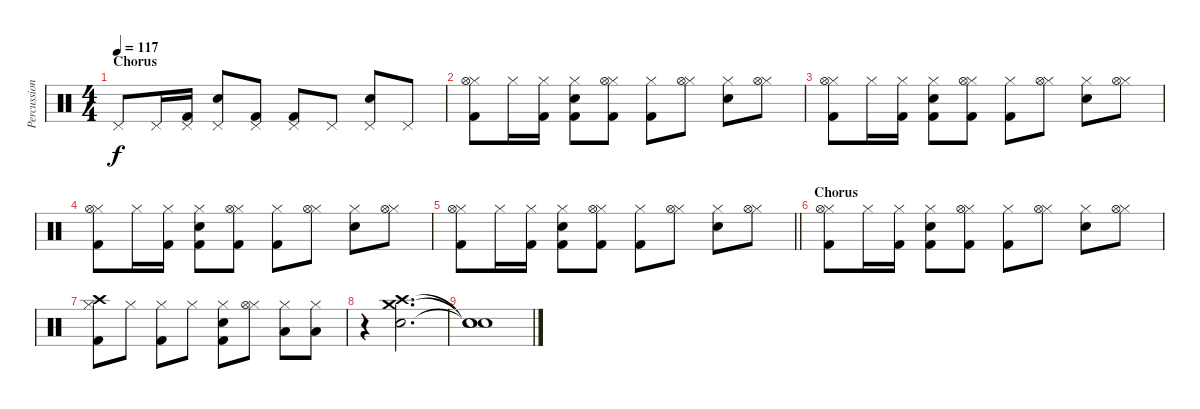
\track ("Percussion" "Percussion") {instrument percussion}
\staff {score}
\articulation defaults
\ts (4 4)
\section ("" "Chorus")
\tempo 117
\clef neutral
\ks c "Pedal Hi-Hat (hit)".8{dy f} "Pedal Hi-Hat (hit)".16
("Pedal Hi-Hat (hit)" "Kick (hit) 2").16 ("Pedal Hi-Hat (hit)" "Electric Snare (hit)").8 ("Pedal Hi-Hat (hit)" "Kick (hit) 2").8 ("Pedal Hi-Hat (hit)" "Kick (hit) 2").8 "Pedal Hi-Hat (hit)".8 ("Pedal Hi-Hat (hit)" "Electric Snare (hit)").8 "Pedal Hi-Hat (hit)".8 |
("Hi-Hat (closed)" "Kick (hit) 2" "Hi-Hat (open)").8 "Hi-Hat (closed)".16 ("Hi-Hat (closed)" "Kick (hit) 2").16 ("Hi-Hat (closed)" "Kick (hit) 2" "Electric Snare (hit)").8 ("Hi-Hat (closed)" "Hi-Hat (open)" "Kick (hit) 2").8 ("Hi-Hat (closed)" "Kick (hit) 2").8 ("Hi-Hat (closed)" "Hi-Hat (open)").8 ("Hi-Hat (closed)" "Electric Snare (hit)").8 ("Hi-Hat (closed)" "Hi-Hat (open)").8 |
("Hi-Hat (closed)" "Kick (hit) 2" "Hi-Hat (open)").8 "Hi-Hat (closed)".16 ("Hi-Hat (closed)" "Kick (hit) 2").16 ("Hi-Hat (closed)" "Kick (hit) 2" "Electric Snare (hit)").8 ("Hi-Hat (closed)" "Hi-Hat (open)" "Kick (hit) 2").8 ("Hi-Hat (closed)" "Kick (hit) 2").8 ("Hi-Hat (closed)" "Hi-Hat (open)").8 ("Hi-Hat (closed)" "Electric Snare (hit)").8 ("Hi-Hat (closed)" "Hi-Hat (open)").8 |
("Hi-Hat (closed)" "Kick (hit) 2" "Hi-Hat (open)").8 "Hi-Hat (closed)".16 ("Hi-Hat (closed)" "Kick (hit) 2").16 ("Hi-Hat (closed)" "Kick (hit) 2" "Electric Snare (hit)").8 ("Hi-Hat (closed)" "Hi-Hat (open)" "Kick (hit) 2").8 ("Hi-Hat (closed)" "Kick (hit) 2").8 ("Hi-Hat (closed)" "Hi-Hat (open)").8 ("Hi-Hat (closed)" "Electric Snare (hit)").8 ("Hi-Hat (closed)" "Hi-Hat (open)").8 |
\barLineRight lightlight
("Hi-Hat (closed)" "Kick (hit) 2" "Hi-Hat (open)").8 "Hi-Hat (closed)".16 ("Hi-Hat (closed)" "Kick (hit) 2").16 ("Hi-Hat (closed)" "Kick (hit) 2" "Electric Snare (hit)").8 ("Hi-Hat (closed)" "Hi-Hat (open)" "Kick (hit) 2").8 ("Hi-Hat (closed)" "Kick (hit) 2").8 ("Hi-Hat (closed)" "Hi-Hat (open)").8 ("Hi-Hat (closed)" "Electric Snare (hit)").8 ("Hi-Hat (closed)" "Hi-Hat (open)").8 |
\section ("" "Chorus")
("Hi-Hat (closed)" "Kick (hit) 2" "Hi-Hat (open)").8 "Hi-Hat (closed)".16 ("Hi-Hat (closed)" "Kick (hit) 2").16 ("Hi-Hat (closed)" "Kick (hit) 2" "Electric Snare (hit)").8 ("Hi-Hat (closed)" "Hi-Hat (open)" "Kick (hit) 2").8 ("Hi-Hat (closed)" "Kick (hit) 2").8 ("Hi-Hat (closed)" "Hi-Hat (open)").8 ("Hi-Hat (closed)" "Electric Snare (hit)").8 ("Hi-Hat (closed)" "Hi-Hat (open)").8 |
("Hi-Hat (closed)" "Kick (hit) 2" "Crash high (hit)").8 "Hi-Hat (closed)".8 ("Hi-Hat (closed)" "Kick (hit) 2").8 "Hi-Hat (closed)".8 ("Hi-Hat (closed)" "Kick (hit) 2" "Electric Snare (hit)").8 ("Hi-Hat (closed)" "Hi-Hat (open)").8 ("Hi-Hat (closed)" "Low Tom (hit)").8 ("Hi-Hat (closed)" "Low Tom (hit)").8 |
r.4 ("Crash medium (hit)" "Snare (hit) 2" "Crash high (hit)").2{d} |
("Snare (hit)"{t} "Snare (hit)"{t} "Snare (hit)"{t}).1
